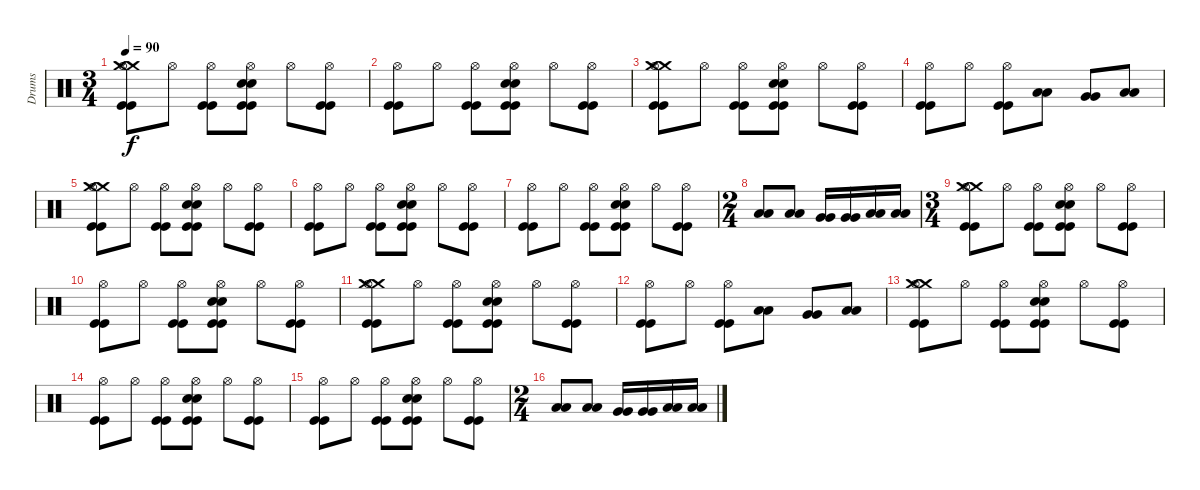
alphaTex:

\track ("Drums" "Drums") {instrument percussion}
\staff {score}
\articulation defaults
\ts (3 4)
\tempo 90
\clef neutral
\ks c
("Crash medium (hit)" "Hi-Hat (open)" "Crash medium (hit)" "Kick (hit)" "Kick (hit)").8{dy f} "Hi-Hat (open)".8 ("Hi-Hat (open)" "Kick (hit)" "Kick (hit)").8 ("Hi-Hat (open)" "Electric Snare (hit)" "Electric Snare (hit)" "Kick (hit)" "Kick (hit)").8 "Hi-Hat (open)".8 ("Hi-Hat (open)" "Kick (hit)" "Kick (hit)").8 |
("Hi-Hat (open)" "Kick (hit)" "Kick (hit)").8 "Hi-Hat (open)".8 ("Hi-Hat (open)" "Kick (hit)" "Kick (hit)").8 ("Hi-Hat (open)" "Electric Snare (hit)" "Electric Snare (hit)" "Kick (hit)" "Kick (hit)").8 "Hi-Hat (open)".8 ("Hi-Hat (open)" "Kick (hit)" "Kick (hit)").8 |
("Crash medium (hit)" "Hi-Hat (open)" "Crash medium (hit)" "Kick (hit)" "Kick (hit)").8 "Hi-Hat (open)".8 ("Hi-Hat (open)" "Kick (hit)" "Kick (hit)").8 ("Hi-Hat (open)" "Snare (hit)" "Electric Snare (hit)" "Kick (hit)" "Kick (hit)").8 "Hi-Hat (open)".8 ("Hi-Hat (open)" "Kick (hit)" "Kick (hit)").8 |
("Hi-Hat (open)" "Kick (hit)" "Kick (hit)").8 "Hi-Hat (open)".8 ("Hi-Hat (open)" "Kick (hit)" "Kick (hit)").8 ("Low Tom (hit)" "Low Tom (hit)").8 ("Very Low Tom (hit)" "Very Low Tom (hit)").8 ("Low Floor Tom (hit)" "Low Floor Tom (hit)").8 |
("Crash medium (hit)" "Hi-Hat (open)" "Crash medium (hit)" "Kick (hit)" "Kick (hit)").8 "Hi-Hat (open)".8 ("Hi-Hat (open)" "Kick (hit)" "Kick (hit)").8 ("Hi-Hat (open)" "Electric Snare (hit)" "Electric Snare (hit)" "Kick (hit)" "Kick (hit)").8 "Hi-Hat (open)".8 ("Hi-Hat (open)" "Kick (hit)" "Kick (hit)").8 |
("Hi-Hat (open)" "Kick (hit)" "Kick (hit)").8 "Hi-Hat (open)".8 ("Hi-Hat (open)" "Kick (hit)" "Kick (hit)").8 ("Hi-Hat (open)" "Electric Snare (hit)" "Electric Snare (hit)" "Kick (hit)" "Kick (hit)").8 "Hi-Hat (open)".8 ("Hi-Hat (open)" "Kick (hit)" "Kick (hit)").8 |
("Hi-Hat (open)" "Kick (hit)" "Kick (hit)").8 "Hi-Hat (open)".8 ("Hi-Hat (open)" "Kick (hit)" "Kick (hit)").8 ("Hi-Hat (open)" "Electric Snare (hit)" "Electric Snare (hit)" "Kick (hit)" "Kick (hit)").8 "Hi-Hat (open)".8 ("Hi-Hat (open)" "Kick (hit)" "Kick (hit)").8 |
\ts (2 4)
("Low Tom (hit)" "Low Tom (hit)").8 ("Low Tom (hit)" "Low Tom (hit)").8 ("Very Low Tom (hit)" "Very Low Tom (hit)").16 ("Very Low Tom (hit)" "Very Low Tom (hit)").16 ("Low Floor Tom (hit)" "Low Floor Tom (hit)").16 ("Low Floor Tom (hit)" "Low Floor Tom (hit)").16 |
\ts (3 4)
("Crash medium (hit)" "Hi-Hat (open)" "Crash medium (hit)" "Kick (hit)" "Kick (hit)").8 "Hi-Hat (open)".8 ("Hi-Hat (open)" "Kick (hit)" "Kick (hit)").8 ("Hi-Hat (open)" "Electric Snare (hit)" "Electric Snare (hit)" "Kick (hit)" "Kick (hit)").8 "Hi-Hat (open)".8 ("Hi-Hat (open)" "Kick (hit)" "Kick (hit)").8 |
("Hi-Hat (open)" "Kick (hit)" "Kick (hit)").8 "Hi-Hat (open)".8 ("Hi-Hat (open)" "Kick (hit)" "Kick (hit)").8 ("Hi-Hat (open)" "Electric Snare (hit)" "Electric Snare (hit)" "Kick (hit)" "Kick (hit)").8 "Hi-Hat (open)".8 ("Hi-Hat (open)" "Kick (hit)" "Kick (hit)").8 |
("Crash medium (hit)" "Hi-Hat (open)" "Crash medium (hit)" "Kick (hit)" "Kick (hit)").8 "Hi-Hat (open)".8 ("Hi-Hat (open)" "Kick (hit)" "Kick (hit)").8 ("Hi-Hat (open)" "Snare (hit)" "Electric Snare (hit)" "Kick (hit)" "Kick (hit)").8 "Hi-Hat (open)".8 ("Hi-Hat (open)" "Kick (hit)" "Kick (hit)").8 |
("Hi-Hat (open)" "Kick (hit)" "Kick (hit)").8 "Hi-Hat (open)".8 ("Hi-Hat (open)" "Kick (hit)" "Kick (hit)").8 ("Low Tom (hit)" "Low Tom (hit)").8 ("Very Low Tom (hit)" "Very Low Tom (hit)").8 ("Low Floor Tom (hit)" "Low Floor Tom (hit)").8 |
("Crash medium (hit)" "Hi-Hat (open)" "Crash medium (hit)" "Kick (hit)" "Kick (hit)").8 "Hi-Hat (open)".8 ("Hi-Hat (open)" "Kick (hit)" "Kick (hit)").8 ("Hi-Hat (open)" "Electric Snare (hit)" "Electric Snare (hit)" "Kick (hit)" "Kick (hit)").8 "Hi-Hat (open)".8 ("Hi-Hat (open)" "Kick (hit)" "Kick (hit)").8 |
("Hi-Hat (open)" "Kick (hit)" "Kick (hit)").8 "Hi-Hat (open)".8 ("Hi-Hat (open)" "Kick (hit)" "Kick (hit)").8 ("Hi-Hat (open)" "Electric Snare (hit)" "Electric Snare (hit)" "Kick (hit)" "Kick (hit)").8 "Hi-Hat (open)".8 ("Hi-Hat (open)" "Kick (hit)" "Kick (hit)").8 |
("Hi-Hat (open)" "Kick (hit)" "Kick (hit)").8 "Hi-Hat (open)".8 ("Hi-Hat (open)" "Kick (hit)" "Kick (hit)").8 ("Hi-Hat (open)" "Electric Snare (hit)" "Electric Snare (hit)" "Kick (hit)" "Kick (hit)").8 "Hi-Hat (open)".8 ("Hi-Hat (open)" "Kick (hit)" "Kick (hit)").8 |
\ts (2 4)
("Low Tom (hit)" "Low Tom (hit)").8 ("Low Tom (hit)" "Low Tom (hit)").8 ("Very Low Tom (hit)" "Very Low Tom (hit)").16 ("Very Low Tom (hit)" "Very Low Tom (hit)").16 ("Low Floor Tom (hit)" "Low Floor Tom (hit)").16 ("Low Floor Tom (hit)" "Low Floor Tom (hit)").16
